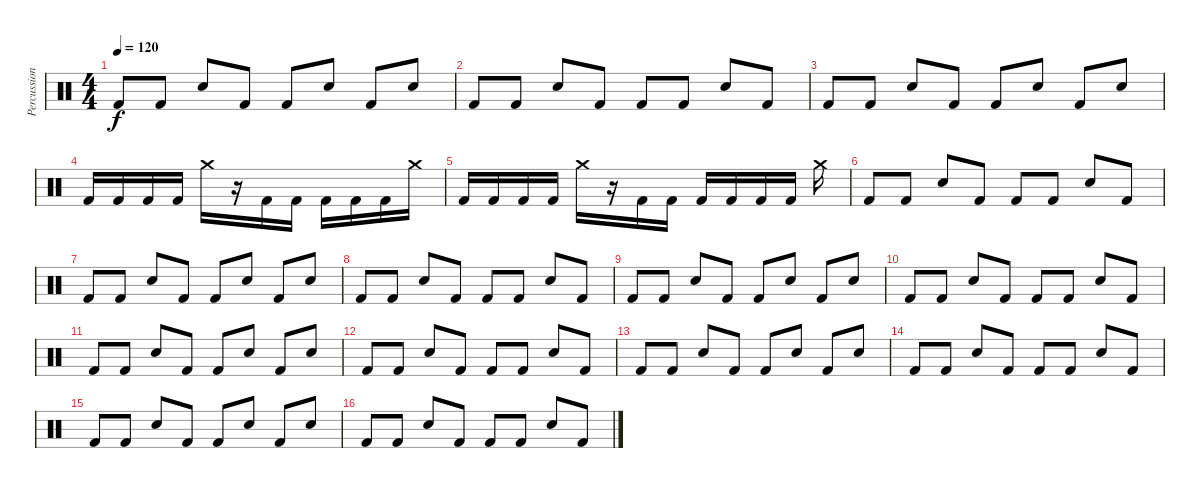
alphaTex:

\track ("Percussion" "Percussion") {solo instrument percussion}
\staff {score}
\articulation defaults
\ts (4 4)
\tempo 120
\clef neutral
\ks c "Kick (hit) 2".8{dy f} "Kick (hit) 2".8 "Snare (hit) 2".8 "Kick (hit) 2".8 "Kick (hit) 2".8 "Snare (hit) 2".8 "Kick (hit) 2".8 "Snare (hit) 2".8
|
"Kick (hit) 2".8 "Kick (hit) 2".8 "Snare (hit) 2".8 "Kick (hit) 2".8 "Kick (hit) 2".8 "Kick (hit) 2".8 "Snare (hit) 2".8 "Kick (hit) 2".8 |
"Kick (hit) 2".8 "Kick (hit) 2".8 "Snare (hit) 2".8 "Kick (hit) 2".8 "Kick (hit) 2".8 "Snare (hit) 2".8 "Kick (hit) 2".8 "Snare (hit) 2".8 |
"Kick (hit) 2".16 "Kick (hit) 2".16 "Kick (hit) 2".16 "Kick (hit) 2".16 "Crash medium (hit)".16 r.16 "Kick (hit) 2".16 "Kick (hit) 2".16 "Kick (hit) 2".16 "Kick (hit) 2".16 "Kick (hit) 2".16 "Crash medium (hit)".16 |
"Kick (hit) 2".16 "Kick (hit) 2".16 "Kick (hit) 2".16 "Kick (hit) 2".16 "Crash medium (hit)".16 r.16 "Kick (hit) 2".16 "Kick (hit) 2".16 "Kick (hit) 2".16 "Kick (hit) 2".16 "Kick (hit) 2".16 "Kick (hit) 2".16 "Crash medium (hit)".16 |
"Kick (hit) 2".8 "Kick (hit) 2".8 "Snare (hit) 2".8 "Kick (hit) 2".8 "Kick (hit) 2".8 "Kick (hit) 2".8 "Snare (hit) 2".8 "Kick (hit) 2".8 |
"Kick (hit) 2".8 "Kick (hit) 2".8 "Snare (hit) 2".8 "Kick (hit) 2".8 "Kick (hit) 2".8 "Snare (hit) 2".8 "Kick (hit) 2".8 "Snare (hit) 2".8 |
"Kick (hit) 2".8 "Kick (hit) 2".8 "Snare (hit) 2".8 "Kick (hit) 2".8 "Kick (hit) 2".8 "Kick (hit) 2".8 "Snare (hit) 2".8 "Kick (hit) 2".8 |
"Kick (hit) 2".8 "Kick (hit) 2".8 "Snare (hit) 2".8 "Kick (hit) 2".8 "Kick (hit) 2".8 "Snare (hit) 2".8 "Kick (hit) 2".8 "Snare (hit) 2".8 |
"Kick (hit) 2".8 "Kick (hit) 2".8 "Snare (hit) 2".8 "Kick (hit) 2".8 "Kick (hit) 2".8 "Kick (hit) 2".8 "Snare (hit) 2".8 "Kick (hit) 2".8 |
"Kick (hit) 2".8 "Kick (hit) 2".8 "Snare (hit) 2".8 "Kick (hit) 2".8 "Kick (hit) 2".8 "Snare (hit) 2".8 "Kick (hit) 2".8 "Snare (hit) 2".8 |
"Kick (hit) 2".8 "Kick (hit) 2".8 "Snare (hit) 2".8 "Kick (hit) 2".8 "Kick (hit) 2".8 "Kick (hit) 2".8 "Snare (hit) 2".8 "Kick (hit) 2".8 |
"Kick (hit) 2".8 "Kick (hit) 2".8 "Snare (hit) 2".8 "Kick (hit) 2".8 "Kick (hit) 2".8 "Snare (hit) 2".8 "Kick (hit) 2".8 "Snare (hit) 2".8 |
"Kick (hit) 2".8 "Kick (hit) 2".8 "Snare (hit) 2".8 "Kick (hit) 2".8 "Kick (hit) 2".8 "Kick (hit) 2".8 "Snare (hit) 2".8 "Kick (hit) 2".8 |
"Kick (hit) 2".8 "Kick (hit) 2".8 "Snare (hit) 2".8 "Kick (hit) 2".8 "Kick (hit) 2".8 "Snare (hit) 2".8 "Kick (hit) 2".8 "Snare (hit) 2".8 |
"Kick (hit) 2".8 "Kick (hit) 2".8 "Snare (hit) 2".8 "Kick (hit) 2".8 "Kick (hit) 2".8 "Kick (hit) 2".8 "Snare (hit) 2".8 "Kick (hit) 2".8
